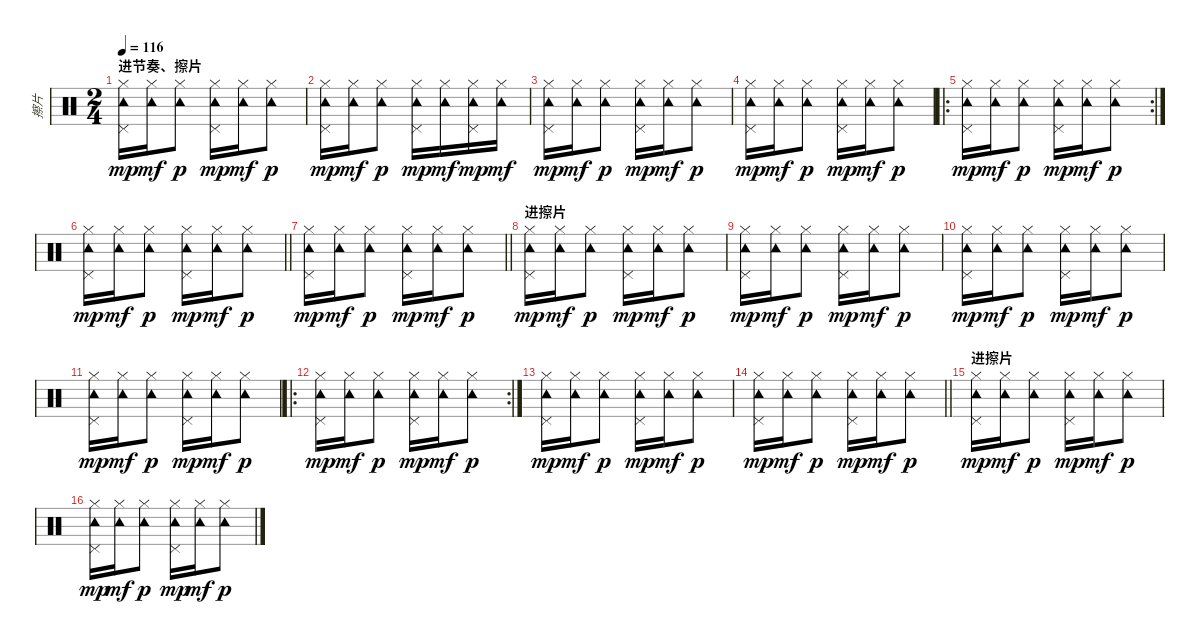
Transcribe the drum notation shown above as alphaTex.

\track ("擦片" "擦片") {instrument percussion}
\staff {score}
\articulation defaults
\ts (2 4)
\section ("" "进节奏、擦片")
\tempo 116
\clef neutral
\ks c
("Hi-Hat (closed)" "Tambourine (hit)" "Pedal Hi-Hat (hit)").16{dy mp} ("Hi-Hat (closed)" "Tambourine (hit)").16{dy mf} ("Hi-Hat (closed)" "Tambourine (hit)").8{dy p} ("Hi-Hat (closed)" "Tambourine (hit)" "Pedal Hi-Hat (hit)").16{dy mp} ("Hi-Hat (closed)" "Tambourine (hit)").16{dy mf} ("Hi-Hat (closed)" "Tambourine (hit)").8{dy p} |
("Hi-Hat (closed)" "Tambourine (hit)" "Pedal Hi-Hat (hit)").16{dy mp} ("Hi-Hat (closed)" "Tambourine (hit)").16{dy mf} ("Hi-Hat (closed)" "Tambourine (hit)").8{dy p} ("Hi-Hat (closed)" "Tambourine (hit)" "Pedal Hi-Hat (hit)").16{dy mp} ("Hi-Hat (closed)" "Tambourine (hit)").16{dy mf} ("Hi-Hat (closed)" "Tambourine (hit)" "Pedal Hi-Hat (hit)").16{dy mp} ("Hi-Hat (closed)" "Tambourine (hit)").16{dy mf} |
("Hi-Hat (closed)" "Tambourine (hit)" "Pedal Hi-Hat (hit)").16{dy mp} ("Hi-Hat (closed)" "Tambourine (hit)").16{dy mf} ("Hi-Hat (closed)" "Tambourine (hit)").8{dy p} ("Hi-Hat (closed)" "Tambourine (hit)" "Pedal Hi-Hat (hit)").16{dy mp} ("Hi-Hat (closed)" "Tambourine (hit)").16{dy mf} ("Hi-Hat (closed)" "Tambourine (hit)").8{dy p} |
("Hi-Hat (closed)" "Tambourine (hit)" "Pedal Hi-Hat (hit)").16{dy mp} ("Hi-Hat (closed)" "Tambourine (hit)").16{dy mf} ("Hi-Hat (closed)" "Tambourine (hit)").8{dy p} ("Hi-Hat (closed)" "Tambourine (hit)" "Pedal Hi-Hat (hit)").16{dy mp} ("Hi-Hat (closed)" "Tambourine (hit)").16{dy mf} ("Hi-Hat (closed)" "Tambourine (hit)").8{dy p} |
\ro
\rc 2
("Hi-Hat (closed)" "Tambourine (hit)" "Pedal Hi-Hat (hit)").16{dy mp} ("Hi-Hat (closed)" "Tambourine (hit)").16{dy mf} ("Hi-Hat (closed)" "Tambourine (hit)").8{dy p} ("Hi-Hat (closed)" "Tambourine (hit)" "Pedal Hi-Hat (hit)").16{dy mp} ("Hi-Hat (closed)" "Tambourine (hit)").16{dy mf} ("Hi-Hat (closed)" "Tambourine (hit)").8{dy p} |
\barLineRight lightlight
("Hi-Hat (closed)" "Tambourine (hit)" "Pedal Hi-Hat (hit)").16{dy mp} ("Hi-Hat (closed)" "Tambourine (hit)").16{dy mf} ("Hi-Hat (closed)" "Tambourine (hit)").8{dy p} ("Hi-Hat (closed)" "Tambourine (hit)" "Pedal Hi-Hat (hit)").16{dy mp} ("Hi-Hat (closed)" "Tambourine (hit)").16{dy mf} ("Hi-Hat (closed)" "Tambourine (hit)").8{dy p} |
\barLineRight lightlight
("Hi-Hat (closed)" "Tambourine (hit)" "Pedal Hi-Hat (hit)").16{dy mp} ("Hi-Hat (closed)" "Tambourine (hit)").16{dy mf} ("Hi-Hat (closed)" "Tambourine (hit)").8{dy p} ("Hi-Hat (closed)" "Tambourine (hit)" "Pedal Hi-Hat (hit)").16{dy mp} ("Hi-Hat (closed)" "Tambourine (hit)").16{dy mf} ("Hi-Hat (closed)" "Tambourine (hit)").8{dy p} |
\section ("" "进擦片")
("Hi-Hat (closed)" "Tambourine (hit)" "Pedal Hi-Hat (hit)").16{dy mp} ("Hi-Hat (closed)" "Tambourine (hit)").16{dy mf} ("Hi-Hat (closed)" "Tambourine (hit)").8{dy p} ("Hi-Hat (closed)" "Tambourine (hit)" "Pedal Hi-Hat (hit)").16{dy mp} ("Hi-Hat (closed)" "Tambourine (hit)").16{dy mf} ("Hi-Hat (closed)" "Tambourine (hit)").8{dy p} |
("Hi-Hat (closed)" "Tambourine (hit)" "Pedal Hi-Hat (hit)").16{dy mp} ("Hi-Hat (closed)" "Tambourine (hit)").16{dy mf} ("Hi-Hat (closed)" "Tambourine (hit)").8{dy p} ("Hi-Hat (closed)" "Tambourine (hit)" "Pedal Hi-Hat (hit)").16{dy mp} ("Hi-Hat (closed)" "Tambourine (hit)").16{dy mf} ("Hi-Hat (closed)" "Tambourine (hit)").8{dy p} |
("Hi-Hat (closed)" "Tambourine (hit)" "Pedal Hi-Hat (hit)").16{dy mp} ("Hi-Hat (closed)" "Tambourine (hit)").16{dy mf} ("Hi-Hat (closed)" "Tambourine (hit)").8{dy p} ("Hi-Hat (closed)" "Tambourine (hit)" "Pedal Hi-Hat (hit)").16{dy mp} ("Hi-Hat (closed)" "Tambourine (hit)").16{dy mf} ("Hi-Hat (closed)" "Tambourine (hit)").8{dy p} |
("Hi-Hat (closed)" "Tambourine (hit)" "Pedal Hi-Hat (hit)").16{dy mp} ("Hi-Hat (closed)" "Tambourine (hit)").16{dy mf} ("Hi-Hat (closed)" "Tambourine (hit)").8{dy p} ("Hi-Hat (closed)" "Tambourine (hit)" "Pedal Hi-Hat (hit)").16{dy mp} ("Hi-Hat (closed)" "Tambourine (hit)").16{dy mf} ("Hi-Hat (closed)" "Tambourine (hit)").8{dy p} |
\ro
\rc 2
("Hi-Hat (closed)" "Tambourine (hit)" "Pedal Hi-Hat (hit)").16{dy mp} ("Hi-Hat (closed)" "Tambourine (hit)").16{dy mf} ("Hi-Hat (closed)" "Tambourine (hit)").8{dy p} ("Hi-Hat (closed)" "Tambourine (hit)" "Pedal Hi-Hat (hit)").16{dy mp} ("Hi-Hat (closed)" "Tambourine (hit)").16{dy mf} ("Hi-Hat (closed)" "Tambourine (hit)").8{dy p} |
("Hi-Hat (closed)" "Tambourine (hit)" "Pedal Hi-Hat (hit)").16{dy mp} ("Hi-Hat (closed)" "Tambourine (hit)").16{dy mf} ("Hi-Hat (closed)" "Tambourine (hit)").8{dy p} ("Hi-Hat (closed)" "Tambourine (hit)" "Pedal Hi-Hat (hit)").16{dy mp} ("Hi-Hat (closed)" "Tambourine (hit)").16{dy mf} ("Hi-Hat (closed)" "Tambourine (hit)").8{dy p} |
\barLineRight lightlight
("Hi-Hat (closed)" "Tambourine (hit)" "Pedal Hi-Hat (hit)").16{dy mp} ("Hi-Hat (closed)" "Tambourine (hit)").16{dy mf} ("Hi-Hat (closed)" "Tambourine (hit)").8{dy p} ("Hi-Hat (closed)" "Tambourine (hit)" "Pedal Hi-Hat (hit)").16{dy mp} ("Hi-Hat (closed)" "Tambourine (hit)").16{dy mf} ("Hi-Hat (closed)" "Tambourine (hit)").8{dy p} |
\section ("" "进擦片")
("Hi-Hat (closed)" "Tambourine (hit)" "Pedal Hi-Hat (hit)").16{dy mp} ("Hi-Hat (closed)" "Tambourine (hit)").16{dy mf} ("Hi-Hat (closed)" "Tambourine (hit)").8{dy p} ("Hi-Hat (closed)" "Tambourine (hit)" "Pedal Hi-Hat (hit)").16{dy mp} ("Hi-Hat (closed)" "Tambourine (hit)").16{dy mf} ("Hi-Hat (closed)" "Tambourine (hit)").8{dy p} |
("Hi-Hat (closed)" "Tambourine (hit)" "Pedal Hi-Hat (hit)").16{dy mp} ("Hi-Hat (closed)" "Tambourine (hit)").16{dy mf} ("Hi-Hat (closed)" "Tambourine (hit)").8{dy p} ("Hi-Hat (closed)" "Tambourine (hit)" "Pedal Hi-Hat (hit)").16{dy mp} ("Hi-Hat (closed)" "Tambourine (hit)").16{dy mf} ("Hi-Hat (closed)" "Tambourine (hit)").8{dy p}
